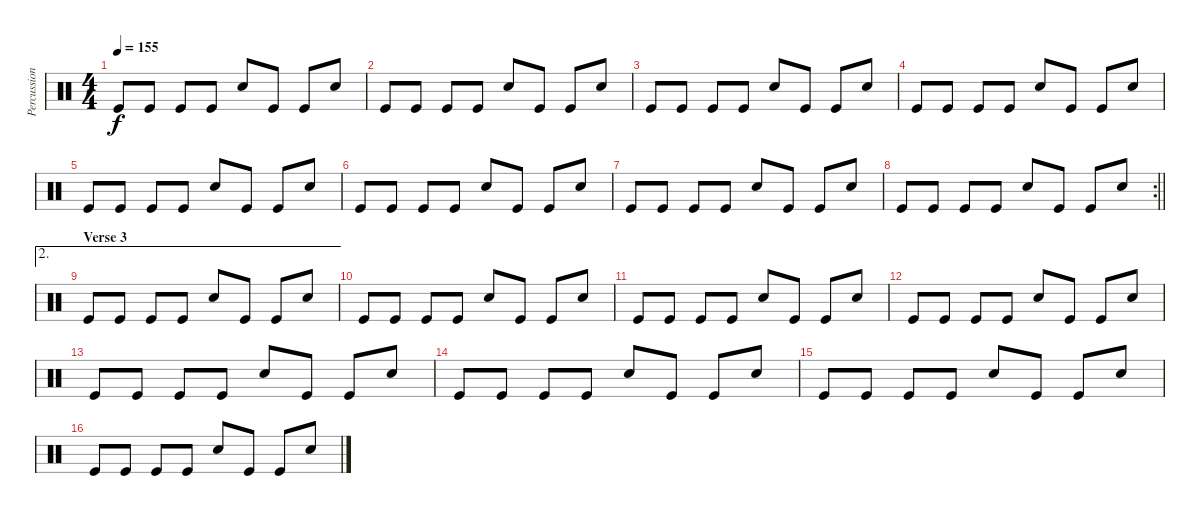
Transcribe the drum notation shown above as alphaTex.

\track ("Percussion" "Percussion") {instrument percussion}
\staff {score}
\articulation defaults
\ts (4 4)
\tempo 155
\clef neutral
\ks c "Kick (hit)".8{dy f} "Kick (hit)".8 "Kick (hit)".8 "Kick (hit)".8 "Snare (hit) 2".8 "Kick (hit)".8 "Kick (hit)".8 "Snare (hit) 2".8
|
"Kick (hit)".8 "Kick (hit)".8 "Kick (hit)".8 "Kick (hit)".8 "Snare (hit) 2".8 "Kick (hit)".8 "Kick (hit)".8 "Snare (hit) 2".8 |
"Kick (hit)".8 "Kick (hit)".8 "Kick (hit)".8 "Kick (hit)".8 "Snare (hit) 2".8 "Kick (hit)".8 "Kick (hit)".8 "Snare (hit) 2".8 |
"Kick (hit)".8 "Kick (hit)".8 "Kick (hit)".8 "Kick (hit)".8 "Snare (hit) 2".8 "Kick (hit)".8 "Kick (hit)".8 "Snare (hit) 2".8 |
"Kick (hit)".8 "Kick (hit)".8 "Kick (hit)".8 "Kick (hit)".8 "Snare (hit) 2".8 "Kick (hit)".8 "Kick (hit)".8 "Snare (hit) 2".8 |
"Kick (hit)".8 "Kick (hit)".8 "Kick (hit)".8 "Kick (hit)".8 "Snare (hit) 2".8 "Kick (hit)".8 "Kick (hit)".8 "Snare (hit) 2".8 |
"Kick (hit)".8 "Kick (hit)".8 "Kick (hit)".8 "Kick (hit)".8 "Snare (hit) 2".8 "Kick (hit)".8 "Kick (hit)".8 "Snare (hit) 2".8 |
\rc 2
\barLineRight lightlight "Kick (hit)".8 "Kick (hit)".8 "Kick (hit)".8 "Kick (hit)".8 "Snare (hit) 2".8 "Kick (hit)".8 "Kick (hit)".8 "Snare (hit) 2".8
|
\ae 2
\section ("" "Verse 3")
"Kick (hit)".8 "Kick (hit)".8 "Kick (hit)".8 "Kick (hit)".8 "Snare (hit) 2".8 "Kick (hit)".8 "Kick (hit)".8 "Snare (hit) 2".8 |
"Kick (hit)".8 "Kick (hit)".8 "Kick (hit)".8 "Kick (hit)".8 "Snare (hit) 2".8 "Kick (hit)".8 "Kick (hit)".8 "Snare (hit) 2".8 |
"Kick (hit)".8 "Kick (hit)".8 "Kick (hit)".8 "Kick (hit)".8 "Snare (hit) 2".8 "Kick (hit)".8 "Kick (hit)".8 "Snare (hit) 2".8 |
"Kick (hit)".8 "Kick (hit)".8 "Kick (hit)".8 "Kick (hit)".8 "Snare (hit) 2".8 "Kick (hit)".8 "Kick (hit)".8 "Snare (hit) 2".8 |
"Kick (hit)".8 "Kick (hit)".8 "Kick (hit)".8 "Kick (hit)".8 "Snare (hit) 2".8 "Kick (hit)".8 "Kick (hit)".8 "Snare (hit) 2".8 |
"Kick (hit)".8 "Kick (hit)".8 "Kick (hit)".8 "Kick (hit)".8 "Snare (hit) 2".8 "Kick (hit)".8 "Kick (hit)".8 "Snare (hit) 2".8 |
"Kick (hit)".8 "Kick (hit)".8 "Kick (hit)".8 "Kick (hit)".8 "Snare (hit) 2".8 "Kick (hit)".8 "Kick (hit)".8 "Snare (hit) 2".8 |
"Kick (hit)".8 "Kick (hit)".8 "Kick (hit)".8 "Kick (hit)".8 "Snare (hit) 2".8 "Kick (hit)".8 "Kick (hit)".8 "Snare (hit) 2".8
